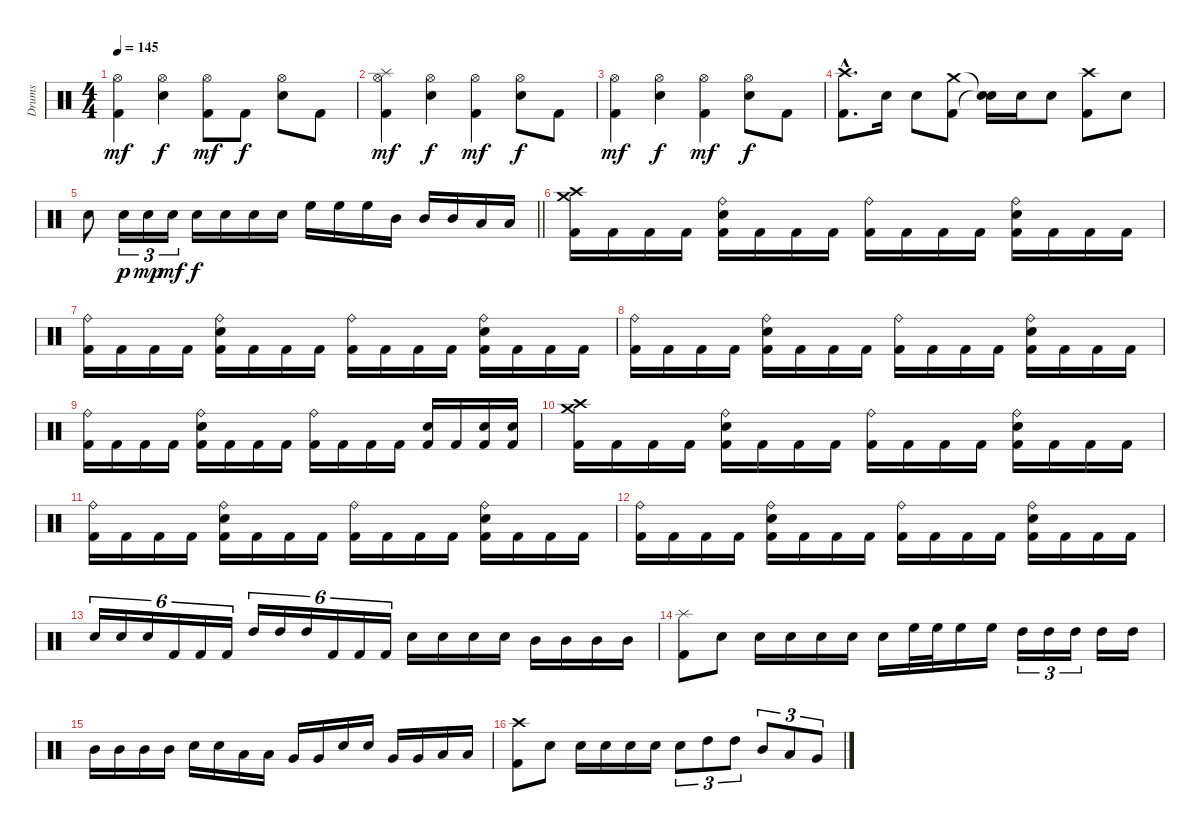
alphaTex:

\track ("Drums" "Drums") {instrument percussion}
\staff {score}
\articulation defaults
\ts (4 4)
\tempo 145
\clef neutral
\ks c
("Hi-Hat (open)" "Kick (hit) 2").4{dy mf} ("Hi-Hat (open)" "Electric Snare (hit)").4{dy f} ("Hi-Hat (open)" "Kick (hit) 2").8{dy mf} "Kick (hit) 2".8{dy f} ("Hi-Hat (open)" "Electric Snare (hit)").8 "Kick (hit) 2".8 |
("Splash (hit)" "Hi-Hat (open)" "Kick (hit) 2").4{dy mf} ("Hi-Hat (open)" "Electric Snare (hit)").4{dy f} ("Hi-Hat (open)" "Kick (hit) 2").4{dy mf} ("Hi-Hat (open)" "Electric Snare (hit)").8{dy f} "Kick (hit) 2".8 |
("Hi-Hat (open)" "Kick (hit) 2").4{dy mf} ("Hi-Hat (open)" "Electric Snare (hit)").4{dy f} ("Hi-Hat (open)" "Kick (hit) 2").4{dy mf} ("Hi-Hat (open)" "Electric Snare (hit)").8{dy f} "Kick (hit) 2".8 |
("Crash high (hit)"{hac} "Kick (hit) 2"{hac}).8{d} "Electric Snare (hit)".16 "Electric Snare (hit)".8 ("Crash medium (hit)" "Kick (hit) 2").8 ("Snare (hit)"{t} "Snare (hit)"{t}).16 "Electric Snare (hit)".16 "Electric Snare (hit)".8 ("Crash high (hit)" "Kick (hit) 2").8 "Electric Snare (hit)".8 |
\barLineRight lightlight "Electric Snare (hit)".8 "Electric Snare (hit)".16{tu (3 2) dy p} "Electric Snare (hit)".16{tu (3 2) dy mp} "Electric Snare (hit)".16{tu (3 2) dy mf} "Electric Snare (hit)".16{dy f} "Electric Snare (hit)".16 "Electric Snare (hit)".16 "Electric Snare (hit)".16 "High Floor Tom (hit)".16 "High Floor Tom (hit)".16 "High Floor Tom (hit)".16 "Mid Tom (hit)".16 "Mid Tom (hit)".16 "Mid Tom (hit)".16 "Low Tom (hit)".16 "Low Tom (hit)".16
|
("Crash high (hit)" "Crash medium (hit)" "Kick (hit) 2").16 "Kick (hit) 2".16 "Kick (hit) 2".16 "Kick (hit) 2".16 ("Ride (bell)" "Electric Snare (hit)" "Kick (hit) 2").16 "Kick (hit) 2".16 "Kick (hit) 2".16 "Kick (hit) 2".16 ("Ride (bell)" "Kick (hit) 2").16 "Kick (hit) 2".16 "Kick (hit) 2".16 "Kick (hit) 2".16 ("Ride (bell)" "Electric Snare (hit)" "Kick (hit) 2").16 "Kick (hit) 2".16 "Kick (hit) 2".16 "Kick (hit) 2".16 |
("Ride (bell)" "Kick (hit) 2").16 "Kick (hit) 2".16 "Kick (hit) 2".16 "Kick (hit) 2".16 ("Ride (bell)" "Electric Snare (hit)" "Kick (hit) 2").16 "Kick (hit) 2".16 "Kick (hit) 2".16 "Kick (hit) 2".16 ("Ride (bell)" "Kick (hit) 2").16 "Kick (hit) 2".16 "Kick (hit) 2".16 "Kick (hit) 2".16 ("Ride (bell)" "Electric Snare (hit)" "Kick (hit) 2").16 "Kick (hit) 2".16 "Kick (hit) 2".16 "Kick (hit) 2".16 |
("Ride (bell)" "Kick (hit) 2").16 "Kick (hit) 2".16 "Kick (hit) 2".16 "Kick (hit) 2".16 ("Ride (bell)" "Electric Snare (hit)" "Kick (hit) 2").16 "Kick (hit) 2".16 "Kick (hit) 2".16 "Kick (hit) 2".16 ("Ride (bell)" "Kick (hit) 2").16 "Kick (hit) 2".16 "Kick (hit) 2".16 "Kick (hit) 2".16 ("Ride (bell)" "Electric Snare (hit)" "Kick (hit) 2").16 "Kick (hit) 2".16 "Kick (hit) 2".16 "Kick (hit) 2".16 |
("Ride (bell)" "Kick (hit) 2").16 "Kick (hit) 2".16 "Kick (hit) 2".16 "Kick (hit) 2".16 ("Ride (bell)" "Electric Snare (hit)" "Kick (hit) 2").16 "Kick (hit) 2".16 "Kick (hit) 2".16 "Kick (hit) 2".16 ("Ride (bell)" "Kick (hit) 2").16 "Kick (hit) 2".16 "Kick (hit) 2".16 "Kick (hit) 2".16 ("Electric Snare (hit)" "Kick (hit) 2").16 "Kick (hit) 2".16 ("Electric Snare (hit)" "Kick (hit) 2").16 ("Electric Snare (hit)" "Kick (hit) 2").16 |
("Crash high (hit)" "Crash medium (hit)" "Kick (hit) 2").16 "Kick (hit) 2".16 "Kick (hit) 2".16 "Kick (hit) 2".16 ("Ride (bell)" "Electric Snare (hit)" "Kick (hit) 2").16 "Kick (hit) 2".16 "Kick (hit) 2".16 "Kick (hit) 2".16 ("Ride (bell)" "Kick (hit) 2").16 "Kick (hit) 2".16 "Kick (hit) 2".16 "Kick (hit) 2".16 ("Ride (bell)" "Electric Snare (hit)" "Kick (hit) 2").16 "Kick (hit) 2".16 "Kick (hit) 2".16 "Kick (hit) 2".16 |
("Ride (bell)" "Kick (hit) 2").16 "Kick (hit) 2".16 "Kick (hit) 2".16 "Kick (hit) 2".16 ("Ride (bell)" "Electric Snare (hit)" "Kick (hit) 2").16 "Kick (hit) 2".16 "Kick (hit) 2".16 "Kick (hit) 2".16 ("Ride (bell)" "Kick (hit) 2").16 "Kick (hit) 2".16 "Kick (hit) 2".16 "Kick (hit) 2".16 ("Ride (bell)" "Electric Snare (hit)" "Kick (hit) 2").16 "Kick (hit) 2".16 "Kick (hit) 2".16 "Kick (hit) 2".16 |
("Ride (bell)" "Kick (hit) 2").16 "Kick (hit) 2".16 "Kick (hit) 2".16 "Kick (hit) 2".16 ("Ride (bell)" "Electric Snare (hit)" "Kick (hit) 2").16 "Kick (hit) 2".16 "Kick (hit) 2".16 "Kick (hit) 2".16 ("Ride (bell)" "Kick (hit) 2").16 "Kick (hit) 2".16 "Kick (hit) 2".16 "Kick (hit) 2".16 ("Ride (bell)" "Electric Snare (hit)" "Kick (hit) 2").16 "Kick (hit) 2".16 "Kick (hit) 2".16 "Kick (hit) 2".16 |
"Electric Snare (hit)".16{tu (6 4)} "Electric Snare (hit)".16{tu (6 4)} "Electric Snare (hit)".16{tu (6 4)} "Kick (hit) 2".16{tu (6 4)} "Kick (hit) 2".16{tu (6 4)} "Kick (hit) 2".16{tu (6 4)} "High Tom (hit)".16{tu (6 4)} "High Tom (hit)".16{tu (6 4)} "High Tom (hit)".16{tu (6 4)} "Kick (hit) 2".16{tu (6 4)} "Kick (hit) 2".16{tu (6 4)} "Kick (hit) 2".16{tu (6 4)} "Electric Snare (hit)".16 "Electric Snare (hit)".16 "Electric Snare (hit)".16 "Electric Snare (hit)".16 "Mid Tom (hit)".16 "Mid Tom (hit)".16 "Mid Tom (hit)".16 "Mid Tom (hit)".16 |
("Splash (hit)" "Kick (hit) 2").8 "Electric Snare (hit)".8 "Electric Snare (hit)".16 "Electric Snare (hit)".16 "Electric Snare (hit)".16 "Electric Snare (hit)".16 "Electric Snare (hit)".16 "High Floor Tom (hit)".32 "High Floor Tom (hit)".32 "High Floor Tom (hit)".16 "High Floor Tom (hit)".16 "High Tom (hit)".16{tu (3 2)} "High Tom (hit)".16{tu (3 2)} "High Tom (hit)".16{tu (3 2)} "High Tom (hit)".16 "High Tom (hit)".16 |
"Mid Tom (hit)".16 "Mid Tom (hit)".16 "Mid Tom (hit)".16 "Mid Tom (hit)".16 "Electric Snare (hit)".16 "Electric Snare (hit)".16 "Low Tom (hit)".16 "Low Tom (hit)".16 "Very Low Tom (hit)".16 "Very Low Tom (hit)".16 "Electric Snare (hit)".16 "Electric Snare (hit)".16 "Very Low Tom (hit)".16 "Very Low Tom (hit)".16 "Low Floor Tom (hit)".16 "Low Floor Tom (hit)".16 |
("Crash high (hit)" "Kick (hit) 2").8 "Electric Snare (hit)".8 "Electric Snare (hit)".16 "Electric Snare (hit)".16 "Electric Snare (hit)".16 "Electric Snare (hit)".16 "Electric Snare (hit)".8{tu (3 2)} "High Tom (hit)".8{tu (3 2)} "High Tom (hit)".8{tu (3 2)} "Mid Tom (hit)".8{tu (3 2)} "Low Tom (hit)".8{tu (3 2)} "Very Low Tom (hit)".8{tu (3 2)}
